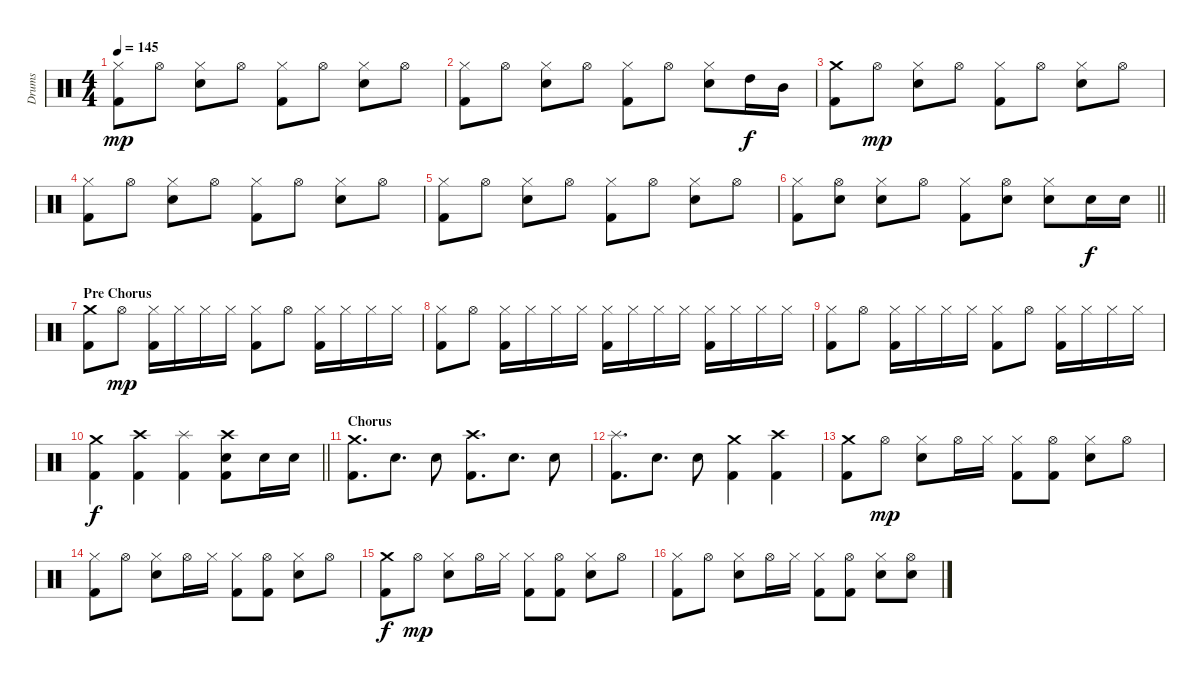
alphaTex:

\track ("Drums" "Drums") {instrument percussion}
\staff {score}
\articulation defaults
\ts (4 4)
\tempo 145
\clef neutral
\ks c
("Hi-Hat (closed)" "Kick (hit) 2").8{dy mp} "Hi-Hat (open)".8 ("Hi-Hat (closed)" "Snare (hit) 2").8 "Hi-Hat (open)".8 ("Hi-Hat (closed)" "Kick (hit) 2").8 "Hi-Hat (open)".8 ("Hi-Hat (closed)" "Snare (hit) 2").8 "Hi-Hat (open)".8 |
("Hi-Hat (closed)" "Kick (hit) 2").8 "Hi-Hat (open)".8 ("Hi-Hat (closed)" "Snare (hit) 2").8 "Hi-Hat (open)".8 ("Hi-Hat (closed)" "Kick (hit) 2").8 "Hi-Hat (open)".8 ("Hi-Hat (closed)" "Snare (hit) 2").8 "High Tom (hit)".16{dy f} "Mid Tom (hit)".16 |
("Crash medium (hit)" "Kick (hit) 2").8 "Hi-Hat (open)".8{dy mp} ("Hi-Hat (closed)" "Snare (hit) 2").8 "Hi-Hat (open)".8 ("Hi-Hat (closed)" "Kick (hit) 2").8 "Hi-Hat (open)".8 ("Hi-Hat (closed)" "Snare (hit) 2").8 "Hi-Hat (open)".8 |
("Hi-Hat (closed)" "Kick (hit) 2").8 "Hi-Hat (open)".8 ("Hi-Hat (closed)" "Snare (hit) 2").8 "Hi-Hat (open)".8 ("Hi-Hat (closed)" "Kick (hit) 2").8 "Hi-Hat (open)".8 ("Hi-Hat (closed)" "Snare (hit) 2").8 "Hi-Hat (open)".8 |
("Hi-Hat (closed)" "Kick (hit) 2").8 "Hi-Hat (open)".8 ("Hi-Hat (closed)" "Snare (hit) 2").8 "Hi-Hat (open)".8 ("Hi-Hat (closed)" "Kick (hit) 2").8 "Hi-Hat (open)".8 ("Hi-Hat (closed)" "Snare (hit) 2").8 "Hi-Hat (open)".8 |
\barLineRight lightlight
("Hi-Hat (closed)" "Kick (hit) 2").8 ("Hi-Hat (open)" "Snare (hit) 2").8 ("Hi-Hat (closed)" "Snare (hit) 2").8 "Hi-Hat (open)".8 ("Hi-Hat (closed)" "Kick (hit) 2").8 ("Hi-Hat (open)" "Snare (hit) 2").8 ("Hi-Hat (closed)" "Snare (hit) 2").8 "Snare (hit) 2".16{dy f} "Snare (hit) 2".16 |
\section ("" "Pre Chorus")
("Crash medium (hit)" "Kick (hit) 2").8 "Hi-Hat (open)".8{dy mp} ("Hi-Hat (closed)" "Kick (hit) 2").16 "Hi-Hat (closed)".16 "Hi-Hat (closed)".16 "Hi-Hat (closed)".16 ("Hi-Hat (closed)" "Kick (hit) 2").8 "Hi-Hat (open)".8 ("Hi-Hat (closed)" "Kick (hit) 2").16 "Hi-Hat (closed)".16 "Hi-Hat (closed)".16 "Hi-Hat (closed)".16 |
("Hi-Hat (closed)" "Kick (hit) 2").8 "Hi-Hat (open)".8 ("Hi-Hat (closed)" "Kick (hit) 2").16 "Hi-Hat (closed)".16 "Hi-Hat (closed)".16 "Hi-Hat (closed)".16 ("Hi-Hat (closed)" "Kick (hit) 2").16 "Hi-Hat (closed)".16 "Hi-Hat (closed)".16 "Hi-Hat (closed)".16 ("Hi-Hat (closed)" "Kick (hit) 2").16 "Hi-Hat (closed)".16 "Hi-Hat (closed)".16 "Hi-Hat (closed)".16 |
("Hi-Hat (closed)" "Kick (hit) 2").8 "Hi-Hat (open)".8 ("Hi-Hat (closed)" "Kick (hit) 2").16 "Hi-Hat (closed)".16 "Hi-Hat (closed)".16 "Hi-Hat (closed)".16 ("Hi-Hat (closed)" "Kick (hit) 2").8 "Hi-Hat (open)".8 ("Hi-Hat (closed)" "Kick (hit) 2").16 "Hi-Hat (closed)".16 "Hi-Hat (closed)".16 "Hi-Hat (closed)".16 |
\barLineRight lightlight
("Crash medium (hit)" "Kick (hit) 2").4{dy f} ("Crash high (hit)" "Kick (hit) 2").4 ("Splash (hit)" "Kick (hit) 2").4 ("Crash high (hit)" "Snare (hit) 2" "Kick (hit) 2").8 "Snare (hit) 2".16 "Snare (hit) 2".16 |
\section ("" "Chorus")
("Crash medium (hit)" "Kick (hit) 2").8{d} "Snare (hit) 2".8{d} "Snare (hit) 2".8 ("Crash high (hit)" "Kick (hit) 2").8{d} "Snare (hit) 2".8{d} "Snare (hit) 2".8 |
("Splash (hit)" "Kick (hit) 2").8{d} "Snare (hit) 2".8{d} "Snare (hit) 2".8 ("Crash medium (hit)" "Kick (hit) 2").4 ("Crash high (hit)" "Kick (hit) 2").4 |
("Crash medium (hit)" "Kick (hit) 2").8 "Hi-Hat (open)".8{dy mp} ("Hi-Hat (closed)" "Snare (hit) 2").8 "Hi-Hat (open)".16 "Hi-Hat (closed)".16 ("Hi-Hat (closed)" "Kick (hit) 2").8 ("Hi-Hat (open)" "Kick (hit) 2").8 ("Hi-Hat (closed)" "Snare (hit) 2").8 "Hi-Hat (open)".8 |
("Hi-Hat (closed)" "Kick (hit) 2").8 "Hi-Hat (open)".8 ("Hi-Hat (closed)" "Snare (hit) 2").8 "Hi-Hat (open)".16 "Hi-Hat (closed)".16 ("Hi-Hat (closed)" "Kick (hit) 2").8 ("Hi-Hat (open)" "Kick (hit) 2").8 ("Hi-Hat (closed)" "Snare (hit) 2").8 "Hi-Hat (open)".8 |
("Crash medium (hit)" "Kick (hit) 2").8{dy f} "Hi-Hat (open)".8{dy mp} ("Hi-Hat (closed)" "Snare (hit) 2").8 "Hi-Hat (open)".16 "Hi-Hat (closed)".16 ("Hi-Hat (closed)" "Kick (hit) 2").8 ("Hi-Hat (open)" "Kick (hit) 2").8 ("Hi-Hat (closed)" "Snare (hit) 2").8 "Hi-Hat (open)".8 |
("Hi-Hat (closed)" "Kick (hit) 2").8 "Hi-Hat (open)".8 ("Hi-Hat (closed)" "Snare (hit) 2").8 "Hi-Hat (open)".16 "Hi-Hat (closed)".16 ("Hi-Hat (closed)" "Kick (hit) 2").8 ("Hi-Hat (open)" "Kick (hit) 2").8 ("Hi-Hat (closed)" "Snare (hit) 2").8 ("Hi-Hat (open)" "Snare (hit) 2").8
